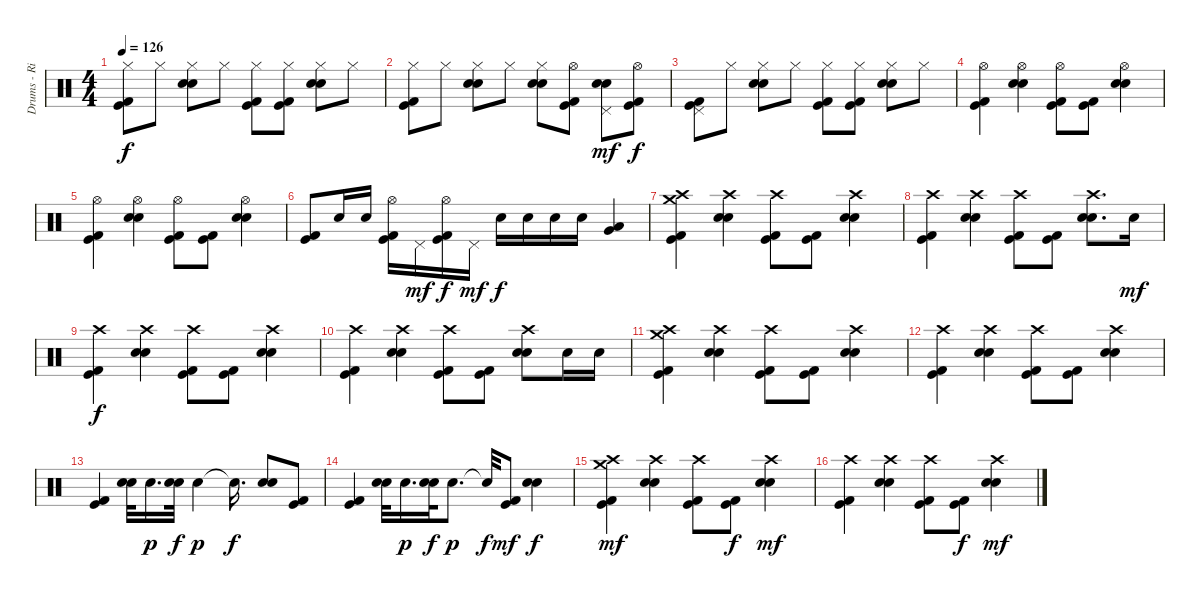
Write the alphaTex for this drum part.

\track ("Drums - Rian" "Drums - Ri") {instrument percussion}
\staff {score}
\articulation defaults
\ts (4 4)
\tempo 126
\clef neutral
\ks c
("Kick (hit) 2" "Kick (hit)" "Hi-Hat (closed)").8{dy f} "Hi-Hat (closed)".8 ("Electric Snare (hit)" "Electric Snare (hit)" "Hi-Hat (closed)").8 "Hi-Hat (closed)".8 ("Kick (hit) 2" "Kick (hit)" "Hi-Hat (closed)").8 ("Kick (hit) 2" "Kick (hit)" "Hi-Hat (closed)").8 ("Electric Snare (hit)" "Electric Snare (hit)" "Hi-Hat (closed)").8 "Hi-Hat (closed)".8 |
("Kick (hit) 2" "Kick (hit)" "Hi-Hat (closed)").8 "Hi-Hat (closed)".8 ("Electric Snare (hit)" "Electric Snare (hit)" "Hi-Hat (closed)").8 "Hi-Hat (closed)".8 ("Electric Snare (hit)" "Electric Snare (hit)" "Hi-Hat (closed)").8 ("Kick (hit) 2" "Kick (hit)" "Hi-Hat (open)").8 ("Electric Snare (hit)" "Electric Snare (hit)" "Pedal Hi-Hat (hit)").8{dy mf} ("Kick (hit) 2" "Kick (hit)" "Hi-Hat (open)").8{dy f} |
("Kick (hit) 2" "Kick (hit)" "Pedal Hi-Hat (hit)").8 "Hi-Hat (closed)".8 ("Electric Snare (hit)" "Electric Snare (hit)" "Hi-Hat (closed)").8 "Hi-Hat (closed)".8 ("Kick (hit) 2" "Kick (hit)" "Hi-Hat (closed)").8 ("Kick (hit) 2" "Kick (hit)" "Hi-Hat (closed)").8 ("Electric Snare (hit)" "Electric Snare (hit)" "Hi-Hat (closed)").8 "Hi-Hat (closed)".8 |
("Kick (hit) 2" "Kick (hit)" "Hi-Hat (open)").4 ("Electric Snare (hit)" "Electric Snare (hit)" "Hi-Hat (open)").4 ("Kick (hit) 2" "Kick (hit)" "Hi-Hat (open)").8 ("Kick (hit) 2" "Kick (hit)").8 ("Electric Snare (hit)" "Electric Snare (hit)" "Hi-Hat (open)").4 |
("Kick (hit) 2" "Kick (hit)" "Hi-Hat (open)").4 ("Electric Snare (hit)" "Electric Snare (hit)" "Hi-Hat (open)").4 ("Kick (hit) 2" "Kick (hit)" "Hi-Hat (open)").8 ("Kick (hit) 2" "Kick (hit)").8 ("Electric Snare (hit)" "Electric Snare (hit)" "Hi-Hat (open)").4 |
("Kick (hit) 2" "Kick (hit)").8 "Electric Snare (hit)".16 "Electric Snare (hit)".16 ("Kick (hit) 2" "Kick (hit)" "Hi-Hat (open)").16 "Pedal Hi-Hat (hit)".16{dy mf} ("Kick (hit) 2" "Kick (hit)" "Hi-Hat (open)").16{dy f} "Pedal Hi-Hat (hit)".16{dy mf} "Electric Snare (hit)".16{dy f} "Electric Snare (hit)".16 "Electric Snare (hit)".16 "Electric Snare (hit)".16 ("Very Low Tom (hit)" "Low Tom (hit)").4 |
("Kick (hit) 2" "Kick (hit)" "Crash high (hit)" "Crash medium (hit)").4 ("Electric Snare (hit)" "Electric Snare (hit)" "Crash high (hit)").4 ("Kick (hit) 2" "Kick (hit)" "Crash high (hit)").8 ("Kick (hit) 2" "Kick (hit)").8 ("Electric Snare (hit)" "Electric Snare (hit)" "Crash high (hit)").4 |
("Kick (hit) 2" "Kick (hit)" "Crash high (hit)").4 ("Electric Snare (hit)" "Electric Snare (hit)" "Crash high (hit)").4 ("Kick (hit) 2" "Kick (hit)" "Crash high (hit)").8 ("Kick (hit) 2" "Kick (hit)").8 ("Electric Snare (hit)" "Electric Snare (hit)" "Crash high (hit)").8{d} "Electric Snare (hit)".16{dy mf} |
("Kick (hit) 2" "Kick (hit)" "Crash high (hit)").4{dy f} ("Electric Snare (hit)" "Electric Snare (hit)" "Crash high (hit)").4 ("Kick (hit) 2" "Kick (hit)" "Crash high (hit)").8 ("Kick (hit) 2" "Kick (hit)").8 ("Electric Snare (hit)" "Electric Snare (hit)" "Crash high (hit)").4 |
("Kick (hit) 2" "Kick (hit)" "Crash high (hit)").4 ("Electric Snare (hit)" "Electric Snare (hit)" "Crash high (hit)").4 ("Kick (hit) 2" "Kick (hit)" "Crash high (hit)").8 ("Kick (hit) 2" "Kick (hit)").8 ("Electric Snare (hit)" "Electric Snare (hit)" "Crash high (hit)").8 "Electric Snare (hit)".16 "Electric Snare (hit)".16 |
("Kick (hit) 2" "Kick (hit)" "Crash high (hit)" "Crash medium (hit)").4 ("Electric Snare (hit)" "Electric Snare (hit)" "Crash high (hit)").4 ("Kick (hit) 2" "Kick (hit)" "Crash high (hit)").8 ("Kick (hit) 2" "Kick (hit)").8 ("Electric Snare (hit)" "Electric Snare (hit)" "Crash high (hit)").4 |
("Kick (hit) 2" "Kick (hit)" "Crash high (hit)").4 ("Electric Snare (hit)" "Electric Snare (hit)" "Crash high (hit)").4 ("Kick (hit) 2" "Kick (hit)" "Crash high (hit)").8 ("Kick (hit) 2" "Kick (hit)").8 ("Electric Snare (hit)" "Electric Snare (hit)" "Crash high (hit)").4 |
("Kick (hit) 2" "Kick (hit)").4 ("Electric Snare (hit)" "Electric Snare (hit)").32 "Electric Snare (hit)".16{d dy p} ("Electric Snare (hit)" "Electric Snare (hit)").32{dy f} "Electric Snare (hit)".4{dy p} "Snare (hit)"{t}.16{d dy f} ("Electric Snare (hit)" "Electric Snare (hit)").8 ("Kick (hit) 2" "Kick (hit)").8 |
("Kick (hit) 2" "Kick (hit)").4 ("Electric Snare (hit)" "Electric Snare (hit)").32 "Electric Snare (hit)".16{d dy p} ("Electric Snare (hit)" "Electric Snare (hit)").32{dy f} "Electric Snare (hit)".8{d dy p} "Snare (hit)"{t}.32{dy f} ("Kick (hit) 2" "Kick (hit)").8{dy mf} ("Electric Snare (hit)" "Electric Snare (hit)").4{dy f} |
("Kick (hit) 2" "Kick (hit)" "Crash high (hit)" "Crash medium (hit)").4{dy mf} ("Electric Snare (hit)" "Electric Snare (hit)" "Crash high (hit)").4 ("Kick (hit) 2" "Kick (hit)" "Crash high (hit)").8 ("Kick (hit) 2" "Kick (hit)").8{dy f} ("Electric Snare (hit)" "Electric Snare (hit)" "Crash high (hit)").4{dy mf} |
("Kick (hit) 2" "Kick (hit)" "Crash high (hit)").4 ("Electric Snare (hit)" "Electric Snare (hit)" "Crash high (hit)").4 ("Kick (hit) 2" "Kick (hit)" "Crash high (hit)").8 ("Kick (hit) 2" "Kick (hit)").8{dy f} ("Electric Snare (hit)" "Electric Snare (hit)" "Crash high (hit)").4{dy mf}
